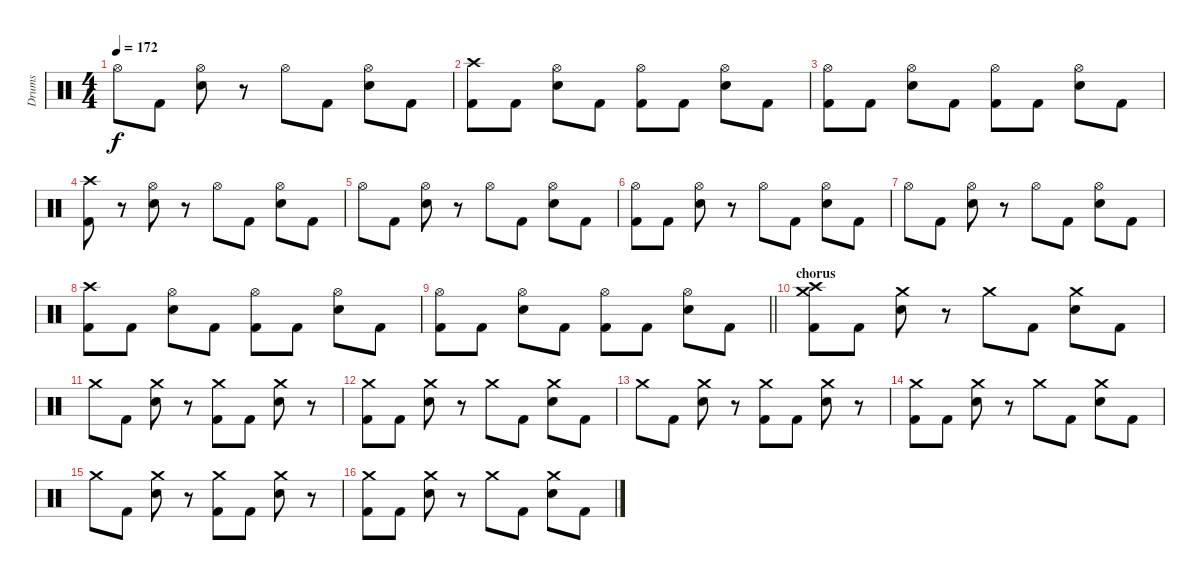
\track ("Drums" "Drums") {instrument percussion}
\staff {score}
\articulation defaults
\ts (4 4)
\tempo 172
\clef neutral
\ks c "Hi-Hat (open)".8{dy f} "Kick (hit) 2".8
("Hi-Hat (open)" "Electric Snare (hit)").8 r.8 "Hi-Hat (open)".8 "Kick (hit) 2".8 ("Hi-Hat (open)" "Electric Snare (hit)").8 "Kick (hit) 2".8 |
("Crash high (hit)" "Kick (hit) 2").8 "Kick (hit) 2".8 ("Hi-Hat (open)" "Electric Snare (hit)").8 "Kick (hit) 2".8 ("Hi-Hat (open)" "Kick (hit) 2").8 "Kick (hit) 2".8 ("Hi-Hat (open)" "Electric Snare (hit)").8 "Kick (hit) 2".8 |
("Hi-Hat (open)" "Kick (hit) 2").8 "Kick (hit) 2".8 ("Hi-Hat (open)" "Electric Snare (hit)").8 "Kick (hit) 2".8 ("Hi-Hat (open)" "Kick (hit) 2").8 "Kick (hit) 2".8 ("Hi-Hat (open)" "Electric Snare (hit)").8 "Kick (hit) 2".8 |
("Crash high (hit)" "Kick (hit) 2").8 r.8 ("Hi-Hat (open)" "Electric Snare (hit)").8 r.8 "Hi-Hat (open)".8 "Kick (hit) 2".8 ("Hi-Hat (open)" "Electric Snare (hit)").8 "Kick (hit) 2".8 |
"Hi-Hat (open)".8 "Kick (hit) 2".8 ("Hi-Hat (open)" "Electric Snare (hit)").8 r.8 "Hi-Hat (open)".8 "Kick (hit) 2".8 ("Hi-Hat (open)" "Electric Snare (hit)").8 "Kick (hit) 2".8 |
("Hi-Hat (open)" "Kick (hit) 2").8 "Kick (hit) 2".8 ("Hi-Hat (open)" "Electric Snare (hit)").8 r.8 "Hi-Hat (open)".8 "Kick (hit) 2".8 ("Hi-Hat (open)" "Electric Snare (hit)").8 "Kick (hit) 2".8 |
"Hi-Hat (open)".8 "Kick (hit) 2".8 ("Hi-Hat (open)" "Electric Snare (hit)").8 r.8 "Hi-Hat (open)".8 "Kick (hit) 2".8 ("Hi-Hat (open)" "Electric Snare (hit)").8 "Kick (hit) 2".8 |
("Crash high (hit)" "Kick (hit) 2").8 "Kick (hit) 2".8 ("Hi-Hat (open)" "Electric Snare (hit)").8 "Kick (hit) 2".8 ("Hi-Hat (open)" "Kick (hit) 2").8 "Kick (hit) 2".8 ("Hi-Hat (open)" "Electric Snare (hit)").8 "Kick (hit) 2".8 |
\barLineRight lightlight
("Hi-Hat (open)" "Kick (hit) 2").8 "Kick (hit) 2".8 ("Hi-Hat (open)" "Electric Snare (hit)").8 "Kick (hit) 2".8 ("Hi-Hat (open)" "Kick (hit) 2").8 "Kick (hit) 2".8 ("Hi-Hat (open)" "Electric Snare (hit)").8 "Kick (hit) 2".8 |
\section ("" "chorus")
("Crash high (hit)" "Crash medium (hit)" "Kick (hit) 2").8 "Kick (hit) 2".8 ("Crash medium (hit)" "Electric Snare (hit)").8 r.8 "Crash medium (hit)".8 "Kick (hit) 2".8 ("Crash medium (hit)" "Electric Snare (hit)").8 "Kick (hit) 2".8 |
"Crash medium (hit)".8 "Kick (hit) 2".8 ("Crash medium (hit)" "Electric Snare (hit)").8 r.8 ("Crash medium (hit)" "Kick (hit) 2").8 "Kick (hit) 2".8 ("Crash medium (hit)" "Electric Snare (hit)").8 r.8 |
("Crash medium (hit)" "Kick (hit) 2").8 "Kick (hit) 2".8 ("Crash medium (hit)" "Electric Snare (hit)").8 r.8 "Crash medium (hit)".8 "Kick (hit) 2".8 ("Crash medium (hit)" "Electric Snare (hit)").8 "Kick (hit) 2".8 |
"Crash medium (hit)".8 "Kick (hit) 2".8 ("Crash medium (hit)" "Electric Snare (hit)").8 r.8 ("Crash medium (hit)" "Kick (hit) 2").8 "Kick (hit) 2".8 ("Crash medium (hit)" "Electric Snare (hit)").8 r.8 |
("Crash medium (hit)" "Kick (hit) 2").8 "Kick (hit) 2".8 ("Crash medium (hit)" "Electric Snare (hit)").8 r.8 "Crash medium (hit)".8 "Kick (hit) 2".8 ("Crash medium (hit)" "Electric Snare (hit)").8 "Kick (hit) 2".8 |
"Crash medium (hit)".8 "Kick (hit) 2".8 ("Crash medium (hit)" "Electric Snare (hit)").8 r.8 ("Crash medium (hit)" "Kick (hit) 2").8 "Kick (hit) 2".8 ("Crash medium (hit)" "Electric Snare (hit)").8 r.8 |
("Crash medium (hit)" "Kick (hit) 2").8 "Kick (hit) 2".8 ("Crash medium (hit)" "Electric Snare (hit)").8 r.8 "Crash medium (hit)".8 "Kick (hit) 2".8 ("Crash medium (hit)" "Electric Snare (hit)").8 "Kick (hit) 2".8
